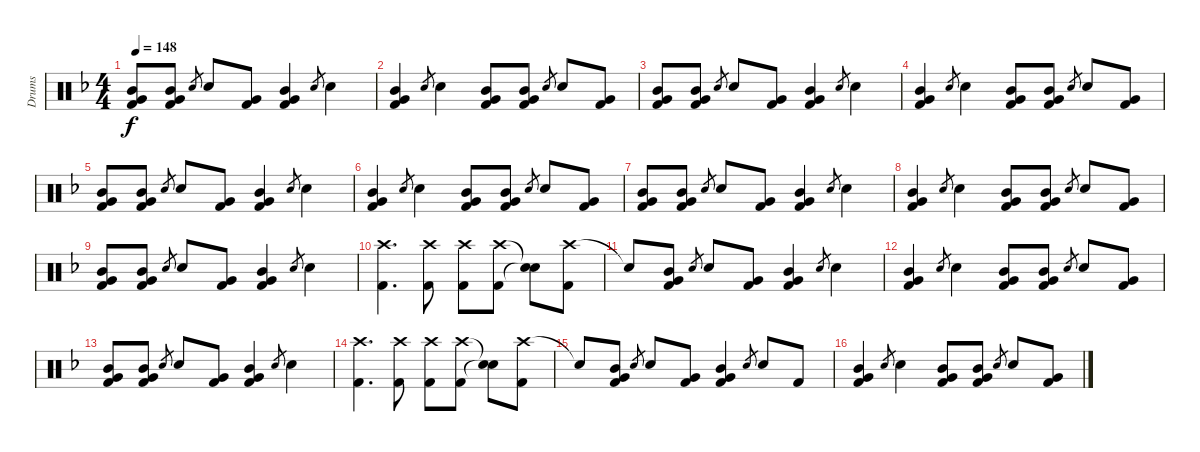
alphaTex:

\track ("Drums" "Drums") {instrument percussion}
\staff {score}
\articulation defaults
\ts (4 4)
\tempo 148
\clef neutral
\ks f
("Mid Tom (hit)" "Very Low Tom (hit)" "Kick (hit) 2").8{dy f} ("Mid Tom (hit)" "Very Low Tom (hit)" "Kick (hit) 2").8 "Snare (hit) 2".8{gr} "Snare (hit) 2".8 ("Very Low Tom (hit)" "Kick (hit) 2").8 ("Mid Tom (hit)" "Very Low Tom (hit)" "Kick (hit) 2").4 "Snare (hit) 2".8{gr} "Snare (hit) 2".4 |
("Mid Tom (hit)" "Very Low Tom (hit)" "Kick (hit) 2").4 "Snare (hit) 2".8{gr} "Snare (hit) 2".4 ("Mid Tom (hit)" "Very Low Tom (hit)" "Kick (hit) 2").8 ("Mid Tom (hit)" "Very Low Tom (hit)" "Kick (hit) 2").8 "Snare (hit) 2".8{gr} "Snare (hit) 2".8 ("Very Low Tom (hit)" "Kick (hit) 2").8 |
("Mid Tom (hit)" "Very Low Tom (hit)" "Kick (hit) 2").8 ("Mid Tom (hit)" "Very Low Tom (hit)" "Kick (hit) 2").8 "Snare (hit) 2".8{gr} "Snare (hit) 2".8 ("Very Low Tom (hit)" "Kick (hit) 2").8 ("Mid Tom (hit)" "Very Low Tom (hit)" "Kick (hit) 2").4 "Snare (hit) 2".8{gr} "Snare (hit) 2".4 |
("Mid Tom (hit)" "Very Low Tom (hit)" "Kick (hit) 2").4 "Snare (hit) 2".8{gr} "Snare (hit) 2".4 ("Mid Tom (hit)" "Very Low Tom (hit)" "Kick (hit) 2").8 ("Mid Tom (hit)" "Very Low Tom (hit)" "Kick (hit) 2").8 "Snare (hit) 2".8{gr} "Snare (hit) 2".8 ("Very Low Tom (hit)" "Kick (hit) 2").8 |
("Mid Tom (hit)" "Very Low Tom (hit)" "Kick (hit) 2").8 ("Mid Tom (hit)" "Very Low Tom (hit)" "Kick (hit) 2").8 "Snare (hit) 2".8{gr} "Snare (hit) 2".8 ("Very Low Tom (hit)" "Kick (hit) 2").8 ("Mid Tom (hit)" "Very Low Tom (hit)" "Kick (hit) 2").4 "Snare (hit) 2".8{gr} "Snare (hit) 2".4 |
("Mid Tom (hit)" "Very Low Tom (hit)" "Kick (hit) 2").4 "Snare (hit) 2".8{gr} "Snare (hit) 2".4 ("Mid Tom (hit)" "Very Low Tom (hit)" "Kick (hit) 2").8 ("Mid Tom (hit)" "Very Low Tom (hit)" "Kick (hit) 2").8 "Snare (hit) 2".8{gr} "Snare (hit) 2".8 ("Very Low Tom (hit)" "Kick (hit) 2").8 |
("Mid Tom (hit)" "Very Low Tom (hit)" "Kick (hit) 2").8 ("Mid Tom (hit)" "Very Low Tom (hit)" "Kick (hit) 2").8 "Snare (hit) 2".8{gr} "Snare (hit) 2".8 ("Very Low Tom (hit)" "Kick (hit) 2").8 ("Mid Tom (hit)" "Very Low Tom (hit)" "Kick (hit) 2").4 "Snare (hit) 2".8{gr} "Snare (hit) 2".4 |
("Mid Tom (hit)" "Very Low Tom (hit)" "Kick (hit) 2").4 "Snare (hit) 2".8{gr} "Snare (hit) 2".4 ("Mid Tom (hit)" "Very Low Tom (hit)" "Kick (hit) 2").8 ("Mid Tom (hit)" "Very Low Tom (hit)" "Kick (hit) 2").8 "Snare (hit) 2".8{gr} "Snare (hit) 2".8 ("Very Low Tom (hit)" "Kick (hit) 2").8 |
("Mid Tom (hit)" "Very Low Tom (hit)" "Kick (hit) 2").8 ("Mid Tom (hit)" "Very Low Tom (hit)" "Kick (hit) 2").8 "Snare (hit) 2".8{gr} "Snare (hit) 2".8 ("Very Low Tom (hit)" "Kick (hit) 2").8 ("Mid Tom (hit)" "Very Low Tom (hit)" "Kick (hit) 2").4 "Snare (hit) 2".8{gr} "Snare (hit) 2".4 |
("Crash high (hit)" "Kick (hit) 2").4{d} ("Crash high (hit)" "Kick (hit) 2").8 ("Crash high (hit)" "Kick (hit) 2").8 ("Crash high (hit)" "Kick (hit) 2").8 ("Snare (hit)"{t} "Snare (hit)"{t}).8 ("Crash high (hit)" "Kick (hit) 2").8 |
"Snare (hit)"{t}.8 ("Mid Tom (hit)" "Very Low Tom (hit)" "Kick (hit) 2").8 "Snare (hit) 2".8{gr} "Snare (hit) 2".8 ("Very Low Tom (hit)" "Kick (hit) 2").8 ("Mid Tom (hit)" "Very Low Tom (hit)" "Kick (hit) 2").4 "Snare (hit) 2".8{gr} "Snare (hit) 2".4 |
("Mid Tom (hit)" "Very Low Tom (hit)" "Kick (hit) 2").4 "Snare (hit) 2".8{gr} "Snare (hit) 2".4 ("Mid Tom (hit)" "Very Low Tom (hit)" "Kick (hit) 2").8 ("Mid Tom (hit)" "Very Low Tom (hit)" "Kick (hit) 2").8 "Snare (hit) 2".8{gr} "Snare (hit) 2".8 ("Very Low Tom (hit)" "Kick (hit) 2").8 |
("Mid Tom (hit)" "Very Low Tom (hit)" "Kick (hit) 2").8 ("Mid Tom (hit)" "Very Low Tom (hit)" "Kick (hit) 2").8 "Snare (hit) 2".8{gr} "Snare (hit) 2".8 ("Very Low Tom (hit)" "Kick (hit) 2").8 ("Mid Tom (hit)" "Very Low Tom (hit)" "Kick (hit) 2").4 "Snare (hit) 2".8{gr} "Snare (hit) 2".4 |
("Crash high (hit)" "Kick (hit) 2").4{d} ("Crash high (hit)" "Kick (hit) 2").8 ("Crash high (hit)" "Kick (hit) 2").8 ("Crash high (hit)" "Kick (hit) 2").8 ("Snare (hit)"{t} "Snare (hit)"{t}).8 ("Crash high (hit)" "Kick (hit) 2").8 |
"Snare (hit)"{t}.8 ("Mid Tom (hit)" "Very Low Tom (hit)" "Kick (hit) 2").8 "Snare (hit) 2".8{gr} "Snare (hit) 2".8 ("Very Low Tom (hit)" "Kick (hit) 2").8 ("Mid Tom (hit)" "Very Low Tom (hit)" "Kick (hit) 2").4 "Snare (hit) 2".8{gr} "Snare (hit) 2".8 "Kick (hit) 2".8 |
("Mid Tom (hit)" "Very Low Tom (hit)" "Kick (hit) 2").4 "Snare (hit) 2".8{gr} "Snare (hit) 2".4 ("Mid Tom (hit)" "Very Low Tom (hit)" "Kick (hit) 2").8 ("Mid Tom (hit)" "Very Low Tom (hit)" "Kick (hit) 2").8 "Snare (hit) 2".8{gr} "Snare (hit) 2".8 ("Very Low Tom (hit)" "Kick (hit) 2").8
